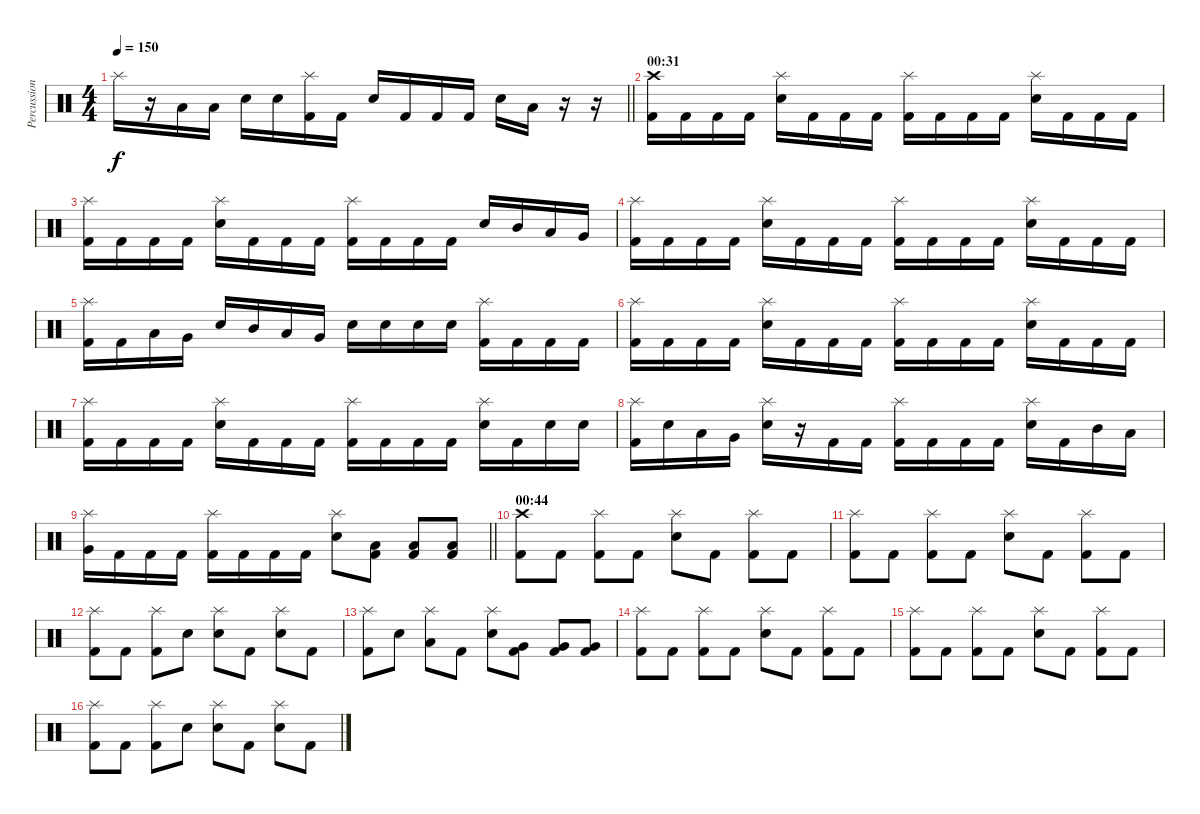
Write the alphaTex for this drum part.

\track ("Percussion" "Percussion") {instrument percussion}
\staff {score}
\articulation defaults
\ts (4 4)
\tempo 150
\clef neutral
\barLineRight lightlight
\ks c "Splash (hit)".16{dy f}
r.16 "Low Tom (hit)".16 "Low Tom (hit)".16 "Electric Snare (hit)".16 "Electric Snare (hit)".16 ("Splash (hit)" "Kick (hit) 2").16 "Kick (hit) 2".16 "Electric Snare (hit)".16 "Kick (hit) 2".16 "Kick (hit) 2".16 "Kick (hit) 2".16 "Electric Snare (hit)".16 "Low Tom (hit)".16 r.16 r.16 |
\section ("" "00:31")
("Crash high (hit)" "Kick (hit) 2").16 "Kick (hit) 2".16 "Kick (hit) 2".16 "Kick (hit) 2".16 ("Splash (hit)" "Electric Snare (hit)").16 "Kick (hit) 2".16 "Kick (hit) 2".16 "Kick (hit) 2".16 ("Splash (hit)" "Kick (hit) 2").16 "Kick (hit) 2".16 "Kick (hit) 2".16 "Kick (hit) 2".16 ("Splash (hit)" "Electric Snare (hit)").16 "Kick (hit) 2".16 "Kick (hit) 2".16 "Kick (hit) 2".16 |
("Splash (hit)" "Kick (hit) 2").16 "Kick (hit) 2".16 "Kick (hit) 2".16 "Kick (hit) 2".16 ("Splash (hit)" "Electric Snare (hit)").16 "Kick (hit) 2".16 "Kick (hit) 2".16 "Kick (hit) 2".16 ("Splash (hit)" "Kick (hit) 2").16 "Kick (hit) 2".16 "Kick (hit) 2".16 "Kick (hit) 2".16 "Electric Snare (hit)".16 "Mid Tom (hit)".16 "Low Tom (hit)".16 "Very Low Tom (hit)".16 |
("Splash (hit)" "Kick (hit) 2").16 "Kick (hit) 2".16 "Kick (hit) 2".16 "Kick (hit) 2".16 ("Splash (hit)" "Electric Snare (hit)").16 "Kick (hit) 2".16 "Kick (hit) 2".16 "Kick (hit) 2".16 ("Splash (hit)" "Kick (hit) 2").16 "Kick (hit) 2".16 "Kick (hit) 2".16 "Kick (hit) 2".16 ("Splash (hit)" "Electric Snare (hit)").16 "Kick (hit) 2".16 "Kick (hit) 2".16 "Kick (hit) 2".16 |
("Splash (hit)" "Kick (hit) 2").16 "Kick (hit) 2".16 "Low Tom (hit)".16 "Very Low Tom (hit)".16 "Electric Snare (hit)".16 "Mid Tom (hit)".16 "Low Tom (hit)".16 "Very Low Tom (hit)".16 "Electric Snare (hit)".16 "Electric Snare (hit)".16 "Electric Snare (hit)".16 "Electric Snare (hit)".16 ("Splash (hit)" "Kick (hit) 2").16 "Kick (hit) 2".16 "Kick (hit) 2".16 "Kick (hit) 2".16 |
("Splash (hit)" "Kick (hit) 2").16 "Kick (hit) 2".16 "Kick (hit) 2".16 "Kick (hit) 2".16 ("Splash (hit)" "Electric Snare (hit)").16 "Kick (hit) 2".16 "Kick (hit) 2".16 "Kick (hit) 2".16 ("Splash (hit)" "Kick (hit) 2").16 "Kick (hit) 2".16 "Kick (hit) 2".16 "Kick (hit) 2".16 ("Splash (hit)" "Electric Snare (hit)").16 "Kick (hit) 2".16 "Kick (hit) 2".16 "Kick (hit) 2".16 |
("Splash (hit)" "Kick (hit) 2").16 "Kick (hit) 2".16 "Kick (hit) 2".16 "Kick (hit) 2".16 ("Splash (hit)" "Electric Snare (hit)").16 "Kick (hit) 2".16 "Kick (hit) 2".16 "Kick (hit) 2".16 ("Splash (hit)" "Kick (hit) 2").16 "Kick (hit) 2".16 "Kick (hit) 2".16 "Kick (hit) 2".16 ("Splash (hit)" "Electric Snare (hit)").16 "Kick (hit) 2".16 "Electric Snare (hit)".16 "Electric Snare (hit)".16 |
("Splash (hit)" "Kick (hit) 2").16 "Electric Snare (hit)".16 "Low Tom (hit)".16 "Very Low Tom (hit)".16 ("Splash (hit)" "Electric Snare (hit)").16 r.16 "Kick (hit) 2".16 "Kick (hit) 2".16 ("Splash (hit)" "Kick (hit) 2").16 "Kick (hit) 2".16 "Kick (hit) 2".16 "Kick (hit) 2".16 ("Splash (hit)" "Electric Snare (hit)").16 "Kick (hit) 2".16 "Mid Tom (hit)".16 "Low Tom (hit)".16 |
\barLineRight lightlight
("Splash (hit)" "Very Low Tom (hit)").16 "Kick (hit) 2".16 "Kick (hit) 2".16 "Kick (hit) 2".16 ("Splash (hit)" "Kick (hit) 2").16 "Kick (hit) 2".16 "Kick (hit) 2".16 "Kick (hit) 2".16 ("Splash (hit)" "Electric Snare (hit)").8 ("Low Floor Tom (hit)" "Kick (hit) 2").8 ("Low Floor Tom (hit)" "Kick (hit) 2").8 ("Low Floor Tom (hit)" "Kick (hit) 2").8 |
\section ("" "00:44")
("Crash high (hit)" "Kick (hit) 2").8 "Kick (hit) 2".8 ("Splash (hit)" "Kick (hit) 2").8 "Kick (hit) 2".8 ("Splash (hit)" "Electric Snare (hit)").8 "Kick (hit) 2".8 ("Splash (hit)" "Kick (hit) 2").8 "Kick (hit) 2".8 |
("Splash (hit)" "Kick (hit) 2").8 "Kick (hit) 2".8 ("Splash (hit)" "Kick (hit) 2").8 "Kick (hit) 2".8 ("Splash (hit)" "Electric Snare (hit)").8 "Kick (hit) 2".8 ("Splash (hit)" "Kick (hit) 2").8 "Kick (hit) 2".8 |
("Splash (hit)" "Kick (hit) 2").8 "Kick (hit) 2".8 ("Splash (hit)" "Kick (hit) 2").8 "Electric Snare (hit)".8 ("Splash (hit)" "Electric Snare (hit)").8 "Kick (hit) 2".8 ("Splash (hit)" "Electric Snare (hit)").8 "Kick (hit) 2".8 |
("Splash (hit)" "Kick (hit) 2").8 "Electric Snare (hit)".8 ("Splash (hit)" "Low Tom (hit)").8 "Kick (hit) 2".8 ("Splash (hit)" "Electric Snare (hit)").8 ("Very Low Tom (hit)" "Kick (hit) 2").8 ("Very Low Tom (hit)" "Kick (hit) 2").8 ("Very Low Tom (hit)" "Kick (hit) 2").8 |
("Splash (hit)" "Kick (hit) 2").8 "Kick (hit) 2".8 ("Splash (hit)" "Kick (hit) 2").8 "Kick (hit) 2".8 ("Splash (hit)" "Electric Snare (hit)").8 "Kick (hit) 2".8 ("Splash (hit)" "Kick (hit) 2").8 "Kick (hit) 2".8 |
("Splash (hit)" "Kick (hit) 2").8 "Kick (hit) 2".8 ("Splash (hit)" "Kick (hit) 2").8 "Kick (hit) 2".8 ("Splash (hit)" "Electric Snare (hit)").8 "Kick (hit) 2".8 ("Splash (hit)" "Kick (hit) 2").8 "Kick (hit) 2".8 |
("Splash (hit)" "Kick (hit) 2").8 "Kick (hit) 2".8 ("Splash (hit)" "Kick (hit) 2").8 "Electric Snare (hit)".8 ("Splash (hit)" "Electric Snare (hit)").8 "Kick (hit) 2".8 ("Splash (hit)" "Electric Snare (hit)").8 "Kick (hit) 2".8
